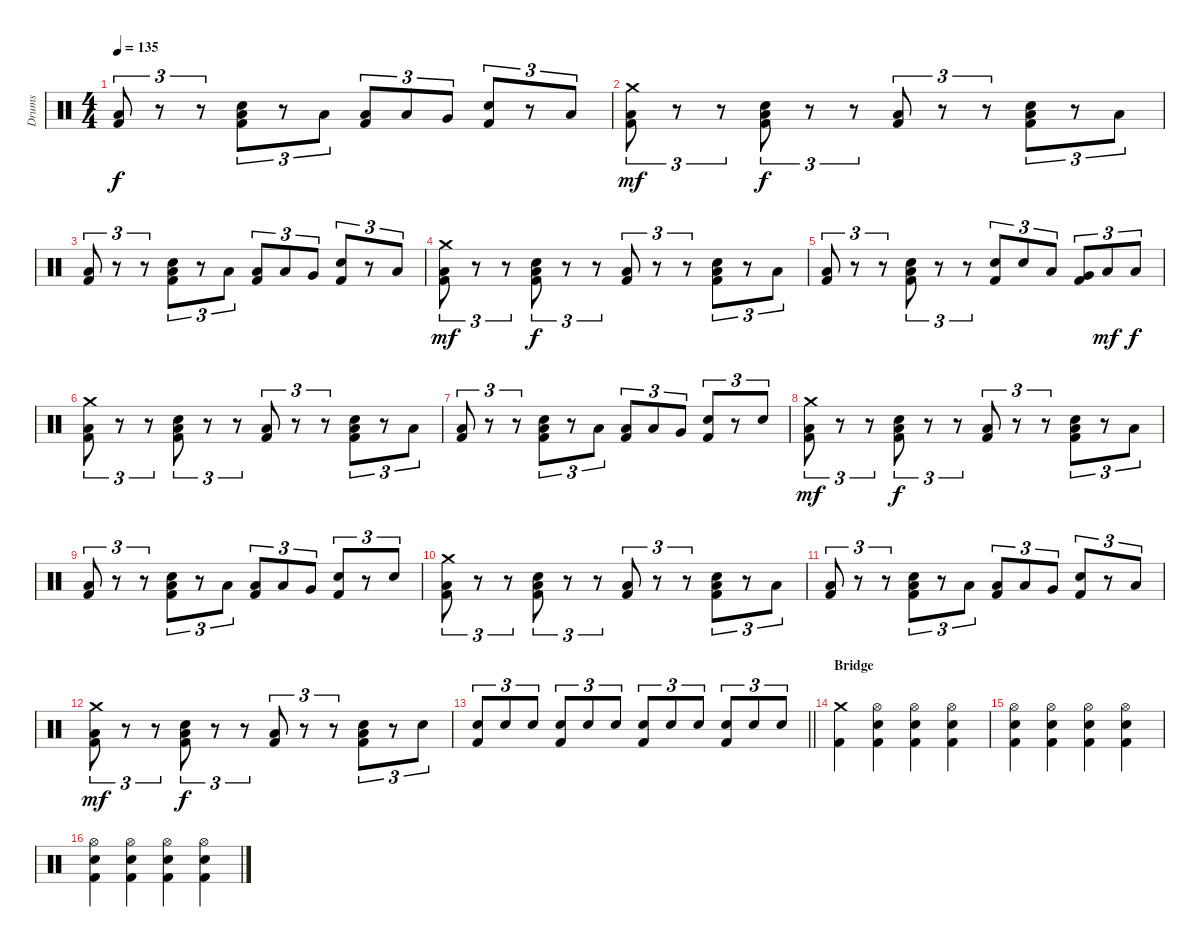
\track ("Drums" "Drums") {instrument percussion}
\staff {score}
\articulation defaults
\ts (4 4)
\tempo 135
\clef neutral
\ks c
("Low Floor Tom (hit)" "Kick (hit) 2").8{tu (3 2) dy f} r.8{tu (3 2)} r.8{tu (3 2)} ("Electric Snare (hit)" "Low Floor Tom (hit)" "Kick (hit) 2").8{tu (3 2)} r.8{tu (3 2)} "Low Floor Tom (hit)".8{tu (3 2)} ("Low Floor Tom (hit)" "Kick (hit) 2").8{tu (3 2)} "Low Tom (hit)".8{tu (3 2)} "Very Low Tom (hit)".8{tu (3 2)} ("Electric Snare (hit)" "Kick (hit) 2").8{tu (3 2)} r.8{tu (3 2)} "Low Floor Tom (hit)".8{tu (3 2)} |
("Crash medium (hit)" "Low Floor Tom (hit)" "Kick (hit) 2").8{tu (3 2) dy mf} r.8{tu (3 2)} r.8{tu (3 2)} ("Electric Snare (hit)" "Low Floor Tom (hit)" "Kick (hit) 2").8{tu (3 2) dy f} r.8{tu (3 2)} r.8{tu (3 2)} ("Low Floor Tom (hit)" "Kick (hit) 2").8{tu (3 2)} r.8{tu (3 2)} r.8{tu (3 2)} ("Electric Snare (hit)" "Low Floor Tom (hit)" "Kick (hit) 2").8{tu (3 2)} r.8{tu (3 2)} "Low Floor Tom (hit)".8{tu (3 2)} |
("Low Floor Tom (hit)" "Kick (hit) 2").8{tu (3 2)} r.8{tu (3 2)} r.8{tu (3 2)} ("Electric Snare (hit)" "Low Floor Tom (hit)" "Kick (hit) 2").8{tu (3 2)} r.8{tu (3 2)} "Low Floor Tom (hit)".8{tu (3 2)} ("Low Floor Tom (hit)" "Kick (hit) 2").8{tu (3 2)} "Low Tom (hit)".8{tu (3 2)} "Very Low Tom (hit)".8{tu (3 2)} ("Electric Snare (hit)" "Kick (hit) 2").8{tu (3 2)} r.8{tu (3 2)} "Low Floor Tom (hit)".8{tu (3 2)} |
("Crash medium (hit)" "Low Floor Tom (hit)" "Kick (hit) 2").8{tu (3 2) dy mf} r.8{tu (3 2)} r.8{tu (3 2)} ("Electric Snare (hit)" "Low Floor Tom (hit)" "Kick (hit) 2").8{tu (3 2) dy f} r.8{tu (3 2)} r.8{tu (3 2)} ("Low Floor Tom (hit)" "Kick (hit) 2").8{tu (3 2)} r.8{tu (3 2)} r.8{tu (3 2)} ("Electric Snare (hit)" "Low Floor Tom (hit)" "Kick (hit) 2").8{tu (3 2)} r.8{tu (3 2)} "Low Floor Tom (hit)".8{tu (3 2)} |
("Low Floor Tom (hit)" "Kick (hit) 2").8{tu (3 2)} r.8{tu (3 2)} r.8{tu (3 2)} ("Electric Snare (hit)" "Low Floor Tom (hit)" "Kick (hit) 2").8{tu (3 2)} r.8{tu (3 2)} r.8{tu (3 2)} ("Electric Snare (hit)" "Kick (hit) 2").8{tu (3 2)} "Electric Snare (hit)".8{tu (3 2)} "Low Tom (hit)".8{tu (3 2)} ("Very Low Tom (hit)" "Kick (hit) 2").8{tu (3 2)} "Low Floor Tom (hit)".8{tu (3 2) dy mf} "Low Floor Tom (hit)".8{tu (3 2) dy f} |
("Crash medium (hit)" "Low Floor Tom (hit)" "Kick (hit) 2").8{tu (3 2)} r.8{tu (3 2)} r.8{tu (3 2)} ("Electric Snare (hit)" "Low Floor Tom (hit)" "Kick (hit) 2").8{tu (3 2)} r.8{tu (3 2)} r.8{tu (3 2)} ("Low Floor Tom (hit)" "Kick (hit) 2").8{tu (3 2)} r.8{tu (3 2)} r.8{tu (3 2)} ("Electric Snare (hit)" "Low Floor Tom (hit)" "Kick (hit) 2").8{tu (3 2)} r.8{tu (3 2)} "Low Floor Tom (hit)".8{tu (3 2)} |
("Low Floor Tom (hit)" "Kick (hit) 2").8{tu (3 2)} r.8{tu (3 2)} r.8{tu (3 2)} ("Electric Snare (hit)" "Low Floor Tom (hit)" "Kick (hit) 2").8{tu (3 2)} r.8{tu (3 2)} "Low Floor Tom (hit)".8{tu (3 2)} ("Low Floor Tom (hit)" "Kick (hit) 2").8{tu (3 2)} "Low Tom (hit)".8{tu (3 2)} "Very Low Tom (hit)".8{tu (3 2)} ("Electric Snare (hit)" "Kick (hit) 2").8{tu (3 2)} r.8{tu (3 2)} "Electric Snare (hit)".8{tu (3 2)} |
("Crash medium (hit)" "Low Floor Tom (hit)" "Kick (hit) 2").8{tu (3 2) dy mf} r.8{tu (3 2)} r.8{tu (3 2)} ("Electric Snare (hit)" "Low Floor Tom (hit)" "Kick (hit) 2").8{tu (3 2) dy f} r.8{tu (3 2)} r.8{tu (3 2)} ("Low Floor Tom (hit)" "Kick (hit) 2").8{tu (3 2)} r.8{tu (3 2)} r.8{tu (3 2)} ("Electric Snare (hit)" "Low Floor Tom (hit)" "Kick (hit) 2").8{tu (3 2)} r.8{tu (3 2)} "Low Floor Tom (hit)".8{tu (3 2)} |
("Low Floor Tom (hit)" "Kick (hit) 2").8{tu (3 2)} r.8{tu (3 2)} r.8{tu (3 2)} ("Electric Snare (hit)" "Low Floor Tom (hit)" "Kick (hit) 2").8{tu (3 2)} r.8{tu (3 2)} "Low Floor Tom (hit)".8{tu (3 2)} ("Low Floor Tom (hit)" "Kick (hit) 2").8{tu (3 2)} "Low Tom (hit)".8{tu (3 2)} "Very Low Tom (hit)".8{tu (3 2)} ("Electric Snare (hit)" "Kick (hit) 2").8{tu (3 2)} r.8{tu (3 2)} "Electric Snare (hit)".8{tu (3 2)} |
("Crash medium (hit)" "Low Floor Tom (hit)" "Kick (hit) 2").8{tu (3 2)} r.8{tu (3 2)} r.8{tu (3 2)} ("Electric Snare (hit)" "Low Floor Tom (hit)" "Kick (hit) 2").8{tu (3 2)} r.8{tu (3 2)} r.8{tu (3 2)} ("Low Floor Tom (hit)" "Kick (hit) 2").8{tu (3 2)} r.8{tu (3 2)} r.8{tu (3 2)} ("Electric Snare (hit)" "Low Floor Tom (hit)" "Kick (hit) 2").8{tu (3 2)} r.8{tu (3 2)} "Low Floor Tom (hit)".8{tu (3 2)} |
("Low Floor Tom (hit)" "Kick (hit) 2").8{tu (3 2)} r.8{tu (3 2)} r.8{tu (3 2)} ("Electric Snare (hit)" "Low Floor Tom (hit)" "Kick (hit) 2").8{tu (3 2)} r.8{tu (3 2)} "Low Floor Tom (hit)".8{tu (3 2)} ("Low Floor Tom (hit)" "Kick (hit) 2").8{tu (3 2)} "Low Tom (hit)".8{tu (3 2)} "Very Low Tom (hit)".8{tu (3 2)} ("Electric Snare (hit)" "Kick (hit) 2").8{tu (3 2)} r.8{tu (3 2)} "Low Floor Tom (hit)".8{tu (3 2)} |
("Crash medium (hit)" "Low Floor Tom (hit)" "Kick (hit) 2").8{tu (3 2) dy mf} r.8{tu (3 2)} r.8{tu (3 2)} ("Electric Snare (hit)" "Low Floor Tom (hit)" "Kick (hit) 2").8{tu (3 2) dy f} r.8{tu (3 2)} r.8{tu (3 2)} ("Low Floor Tom (hit)" "Kick (hit) 2").8{tu (3 2)} r.8{tu (3 2)} r.8{tu (3 2)} ("Electric Snare (hit)" "Low Floor Tom (hit)" "Kick (hit) 2").8{tu (3 2)} r.8{tu (3 2)} "Electric Snare (hit)".8{tu (3 2)} |
\barLineRight lightlight
("Electric Snare (hit)" "Kick (hit) 2").8{tu (3 2)} "Electric Snare (hit)".8{tu (3 2)} "Electric Snare (hit)".8{tu (3 2)} ("Electric Snare (hit)" "Kick (hit) 2").8{tu (3 2)} "Electric Snare (hit)".8{tu (3 2)} "Electric Snare (hit)".8{tu (3 2)} ("Electric Snare (hit)" "Kick (hit) 2").8{tu (3 2)} "Electric Snare (hit)".8{tu (3 2)} "Electric Snare (hit)".8{tu (3 2)} ("Electric Snare (hit)" "Kick (hit) 2").8{tu (3 2)} "Electric Snare (hit)".8{tu (3 2)} "Electric Snare (hit)".8{tu (3 2)} |
\section ("" "Bridge")
("Crash medium (hit)" "Kick (hit) 2").4 ("Hi-Hat (open)" "Electric Snare (hit)" "Kick (hit) 2").4 ("Hi-Hat (open)" "Electric Snare (hit)" "Kick (hit) 2").4 ("Hi-Hat (open)" "Electric Snare (hit)" "Kick (hit) 2").4 |
("Hi-Hat (open)" "Electric Snare (hit)" "Kick (hit) 2").4 ("Hi-Hat (open)" "Electric Snare (hit)" "Kick (hit) 2").4 ("Hi-Hat (open)" "Electric Snare (hit)" "Kick (hit) 2").4 ("Hi-Hat (open)" "Electric Snare (hit)" "Kick (hit) 2").4 |
("Hi-Hat (open)" "Electric Snare (hit)" "Kick (hit) 2").4 ("Hi-Hat (open)" "Electric Snare (hit)" "Kick (hit) 2").4 ("Hi-Hat (open)" "Electric Snare (hit)" "Kick (hit) 2").4 ("Hi-Hat (open)" "Electric Snare (hit)" "Kick (hit) 2").4
